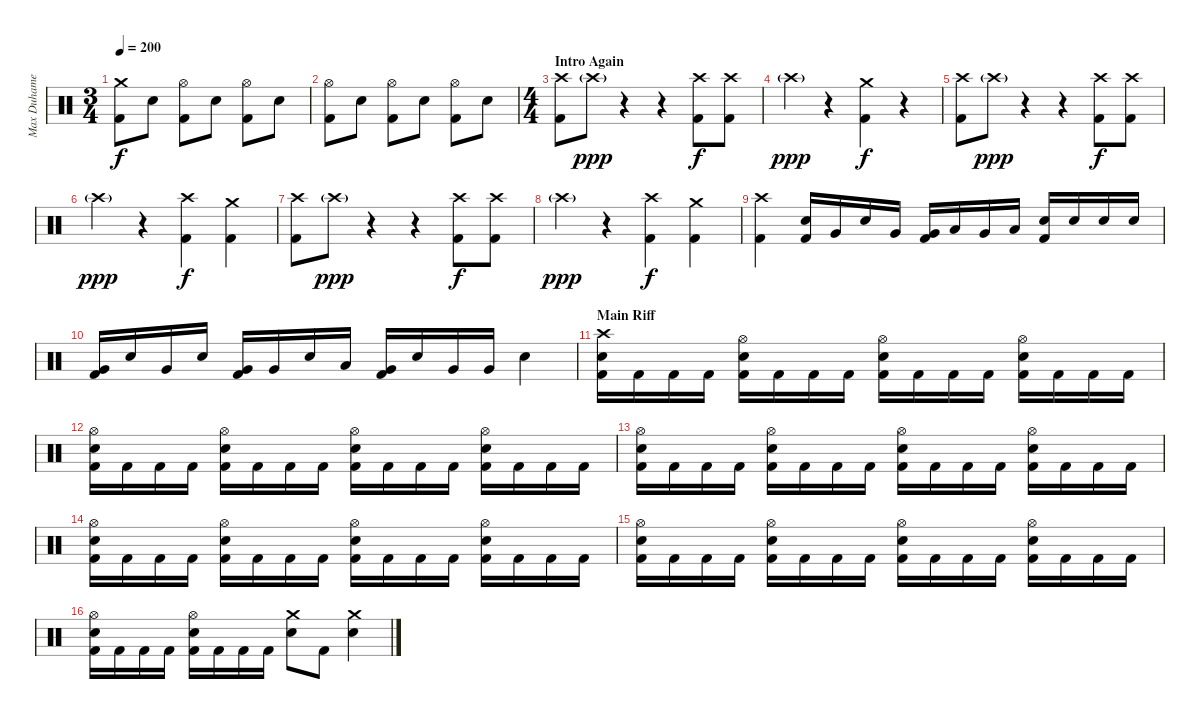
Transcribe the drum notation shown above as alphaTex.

\track ("Max Duhamel" "Max Duhame") {instrument percussion}
\staff {score}
\articulation defaults
\ts (3 4)
\tempo 200
\clef neutral
\ks c
("Crash medium (hit)" "Kick (hit) 2").8{dy f} "Electric Snare (hit)".8 ("Hi-Hat (open)" "Kick (hit) 2").8 "Electric Snare (hit)".8 ("Hi-Hat (open)" "Kick (hit) 2").8 "Electric Snare (hit)".8 |
("Hi-Hat (open)" "Kick (hit) 2").8 "Electric Snare (hit)".8 ("Hi-Hat (open)" "Kick (hit) 2").8 "Electric Snare (hit)".8 ("Hi-Hat (open)" "Kick (hit) 2").8 "Electric Snare (hit)".8 |
\ts (4 4)
\section ("" "Intro Again")
("Crash high (hit)" "Kick (hit) 2").8 "Crash high (hit)"{g}.8{dy ppp} r.4 r.4 ("Crash high (hit)" "Kick (hit) 2").8{dy f} ("Crash high (hit)" "Kick (hit) 2").8 |
"Crash high (hit)"{g}.4{dy ppp} r.4 ("Crash medium (hit)" "Kick (hit) 2").4{dy f} r.4 |
("Crash high (hit)" "Kick (hit) 2").8 "Crash high (hit)"{g}.8{dy ppp} r.4 r.4 ("Crash high (hit)" "Kick (hit) 2").8{dy f} ("Crash high (hit)" "Kick (hit) 2").8 |
"Crash high (hit)"{g}.4{dy ppp} r.4 ("Crash high (hit)" "Kick (hit) 2").4{dy f} ("Crash medium (hit)" "Kick (hit) 2").4 |
("Crash high (hit)" "Kick (hit) 2").8 "Crash high (hit)"{g}.8{dy ppp} r.4 r.4 ("Crash high (hit)" "Kick (hit) 2").8{dy f} ("Crash high (hit)" "Kick (hit) 2").8 |
"Crash high (hit)"{g}.4{dy ppp} r.4 ("Crash high (hit)" "Kick (hit) 2").4{dy f} ("Crash medium (hit)" "Kick (hit) 2").4 |
("Crash high (hit)" "Kick (hit) 2").4 ("Electric Snare (hit)" "Kick (hit) 2").16 "Very Low Tom (hit)".16 "Electric Snare (hit)".16 "Very Low Tom (hit)".16 ("Very Low Tom (hit)" "Kick (hit) 2").16 "Low Floor Tom (hit)".16 "Very Low Tom (hit)".16 "Low Floor Tom (hit)".16 ("Electric Snare (hit)" "Kick (hit) 2").16 "Electric Snare (hit)".16 "Electric Snare (hit)".16 "Electric Snare (hit)".16 |
("Very Low Tom (hit)" "Kick (hit) 2").16 "Electric Snare (hit)".16 "Very Low Tom (hit)".16 "Electric Snare (hit)".16 ("Very Low Tom (hit)" "Kick (hit) 2").16 "Very Low Tom (hit)".16 "Electric Snare (hit)".16 "Low Floor Tom (hit)".16 ("Very Low Tom (hit)" "Kick (hit) 2").16 "Electric Snare (hit)".16 "Very Low Tom (hit)".16 "Very Low Tom (hit)".16 "Electric Snare (hit)".4 |
\section ("" "Main Riff")
("Crash high (hit)" "Electric Snare (hit)" "Kick (hit) 2").16 "Kick (hit) 2".16 "Kick (hit) 2".16 "Kick (hit) 2".16 ("Hi-Hat (open)" "Electric Snare (hit)" "Kick (hit) 2").16 "Kick (hit) 2".16 "Kick (hit) 2".16 "Kick (hit) 2".16 ("Hi-Hat (open)" "Electric Snare (hit)" "Kick (hit) 2").16 "Kick (hit) 2".16 "Kick (hit) 2".16 "Kick (hit) 2".16 ("Hi-Hat (open)" "Electric Snare (hit)" "Kick (hit) 2").16 "Kick (hit) 2".16 "Kick (hit) 2".16 "Kick (hit) 2".16 |
("Hi-Hat (open)" "Electric Snare (hit)" "Kick (hit) 2").16 "Kick (hit) 2".16 "Kick (hit) 2".16 "Kick (hit) 2".16 ("Hi-Hat (open)" "Electric Snare (hit)" "Kick (hit) 2").16 "Kick (hit) 2".16 "Kick (hit) 2".16 "Kick (hit) 2".16 ("Hi-Hat (open)" "Electric Snare (hit)" "Kick (hit) 2").16 "Kick (hit) 2".16 "Kick (hit) 2".16 "Kick (hit) 2".16 ("Hi-Hat (open)" "Electric Snare (hit)" "Kick (hit) 2").16 "Kick (hit) 2".16 "Kick (hit) 2".16 "Kick (hit) 2".16 |
("Hi-Hat (open)" "Electric Snare (hit)" "Kick (hit) 2").16 "Kick (hit) 2".16 "Kick (hit) 2".16 "Kick (hit) 2".16 ("Hi-Hat (open)" "Electric Snare (hit)" "Kick (hit) 2").16 "Kick (hit) 2".16 "Kick (hit) 2".16 "Kick (hit) 2".16 ("Hi-Hat (open)" "Electric Snare (hit)" "Kick (hit) 2").16 "Kick (hit) 2".16 "Kick (hit) 2".16 "Kick (hit) 2".16 ("Hi-Hat (open)" "Electric Snare (hit)" "Kick (hit) 2").16 "Kick (hit) 2".16 "Kick (hit) 2".16 "Kick (hit) 2".16 |
("Hi-Hat (open)" "Electric Snare (hit)" "Kick (hit) 2").16 "Kick (hit) 2".16 "Kick (hit) 2".16 "Kick (hit) 2".16 ("Hi-Hat (open)" "Electric Snare (hit)" "Kick (hit) 2").16 "Kick (hit) 2".16 "Kick (hit) 2".16 "Kick (hit) 2".16 ("Hi-Hat (open)" "Electric Snare (hit)" "Kick (hit) 2").16 "Kick (hit) 2".16 "Kick (hit) 2".16 "Kick (hit) 2".16 ("Hi-Hat (open)" "Electric Snare (hit)" "Kick (hit) 2").16 "Kick (hit) 2".16 "Kick (hit) 2".16 "Kick (hit) 2".16 |
("Hi-Hat (open)" "Electric Snare (hit)" "Kick (hit) 2").16 "Kick (hit) 2".16 "Kick (hit) 2".16 "Kick (hit) 2".16 ("Hi-Hat (open)" "Electric Snare (hit)" "Kick (hit) 2").16 "Kick (hit) 2".16 "Kick (hit) 2".16 "Kick (hit) 2".16 ("Hi-Hat (open)" "Electric Snare (hit)" "Kick (hit) 2").16 "Kick (hit) 2".16 "Kick (hit) 2".16 "Kick (hit) 2".16 ("Hi-Hat (open)" "Electric Snare (hit)" "Kick (hit) 2").16 "Kick (hit) 2".16 "Kick (hit) 2".16 "Kick (hit) 2".16 |
("Hi-Hat (open)" "Electric Snare (hit)" "Kick (hit) 2").16 "Kick (hit) 2".16 "Kick (hit) 2".16 "Kick (hit) 2".16 ("Hi-Hat (open)" "Electric Snare (hit)" "Kick (hit) 2").16 "Kick (hit) 2".16 "Kick (hit) 2".16 "Kick (hit) 2".16 ("Crash medium (hit)" "Electric Snare (hit)").8 "Kick (hit) 2".8 ("Crash medium (hit)" "Electric Snare (hit)").4
